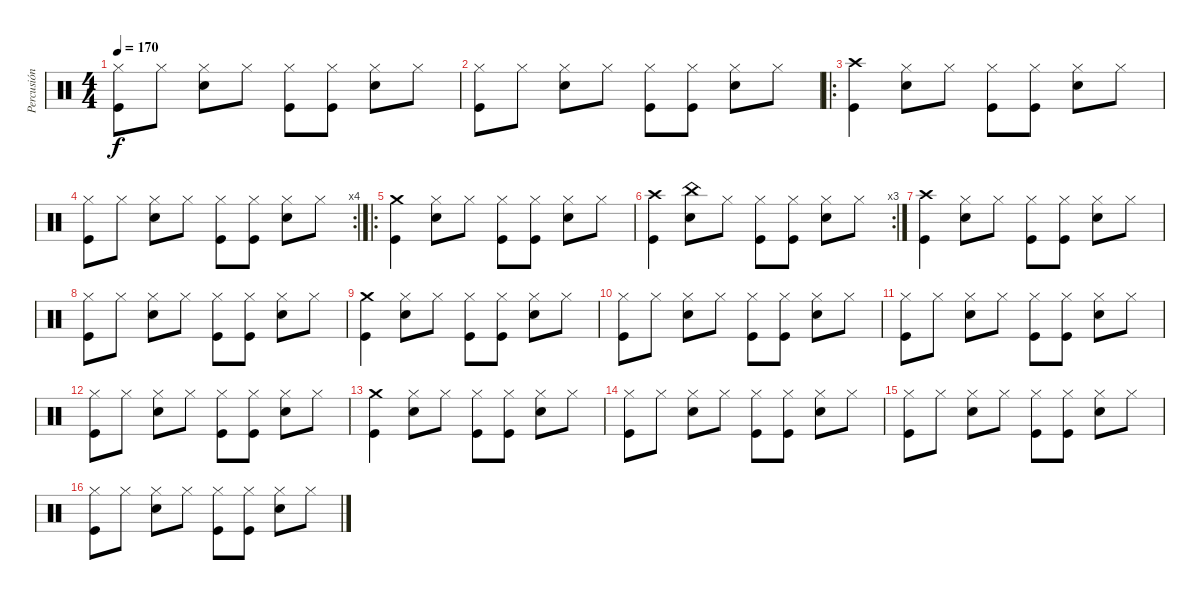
\track ("Percusión" "Percusión") {instrument percussion}
\staff {score}
\articulation defaults
\ts (4 4)
\tempo 170
\clef neutral
\ks c
("Kick (hit)" "Hi-Hat (closed)").8{dy f} "Hi-Hat (closed)".8 ("Snare (hit) 2" "Hi-Hat (closed)").8 "Hi-Hat (closed)".8 ("Hi-Hat (closed)" "Kick (hit)").8 ("Kick (hit)" "Hi-Hat (closed)").8 ("Snare (hit) 2" "Hi-Hat (closed)").8 "Hi-Hat (closed)".8 |
("Kick (hit)" "Hi-Hat (closed)").8 "Hi-Hat (closed)".8 ("Snare (hit) 2" "Hi-Hat (closed)").8 "Hi-Hat (closed)".8 ("Hi-Hat (closed)" "Kick (hit)").8 ("Kick (hit)" "Hi-Hat (closed)").8 ("Snare (hit) 2" "Hi-Hat (closed)").8 "Hi-Hat (closed)".8 |
\ro
("Kick (hit)" "Crash high (hit)").4 ("Snare (hit) 2" "Hi-Hat (closed)").8 "Hi-Hat (closed)".8 ("Hi-Hat (closed)" "Kick (hit)").8 ("Kick (hit)" "Hi-Hat (closed)").8 ("Snare (hit) 2" "Hi-Hat (closed)").8 "Hi-Hat (closed)".8 |
\rc 4
("Kick (hit)" "Hi-Hat (closed)").8 "Hi-Hat (closed)".8 ("Snare (hit) 2" "Hi-Hat (closed)").8 "Hi-Hat (closed)".8 ("Hi-Hat (closed)" "Kick (hit)").8 ("Kick (hit)" "Hi-Hat (closed)").8 ("Snare (hit) 2" "Hi-Hat (closed)").8 "Hi-Hat (closed)".8 |
\ro
("Kick (hit)" "Crash medium (hit)").4 ("Snare (hit) 2" "Hi-Hat (closed)").8 "Hi-Hat (closed)".8 ("Hi-Hat (closed)" "Kick (hit)").8 ("Kick (hit)" "Hi-Hat (closed)").8 ("Snare (hit) 2" "Hi-Hat (closed)").8 "Hi-Hat (closed)".8 |
\rc 3
("Kick (hit)" "Crash high (hit)").4 ("Snare (hit) 2" "China (hit)").8 "Hi-Hat (closed)".8 ("Hi-Hat (closed)" "Kick (hit)").8 ("Kick (hit)" "Hi-Hat (closed)").8 ("Snare (hit) 2" "Hi-Hat (closed)").8 "Hi-Hat (closed)".8 |
("Kick (hit)" "Crash high (hit)").4 ("Snare (hit) 2" "Hi-Hat (closed)").8 "Hi-Hat (closed)".8 ("Hi-Hat (closed)" "Kick (hit)").8 ("Kick (hit)" "Hi-Hat (closed)").8 ("Snare (hit) 2" "Hi-Hat (closed)").8 "Hi-Hat (closed)".8 |
("Kick (hit)" "Hi-Hat (closed)").8 "Hi-Hat (closed)".8 ("Snare (hit) 2" "Hi-Hat (closed)").8 "Hi-Hat (closed)".8 ("Hi-Hat (closed)" "Kick (hit)").8 ("Kick (hit)" "Hi-Hat (closed)").8 ("Snare (hit) 2" "Hi-Hat (closed)").8 "Hi-Hat (closed)".8 |
("Kick (hit)" "Crash medium (hit)").4 ("Snare (hit) 2" "Hi-Hat (closed)").8 "Hi-Hat (closed)".8 ("Hi-Hat (closed)" "Kick (hit)").8 ("Kick (hit)" "Hi-Hat (closed)").8 ("Snare (hit) 2" "Hi-Hat (closed)").8 "Hi-Hat (closed)".8 |
("Kick (hit)" "Hi-Hat (closed)").8 "Hi-Hat (closed)".8 ("Snare (hit) 2" "Hi-Hat (closed)").8 "Hi-Hat (closed)".8 ("Hi-Hat (closed)" "Kick (hit)").8 ("Kick (hit)" "Hi-Hat (closed)").8 ("Snare (hit) 2" "Hi-Hat (closed)").8 "Hi-Hat (closed)".8 |
("Kick (hit)" "Hi-Hat (closed)").8 "Hi-Hat (closed)".8 ("Snare (hit) 2" "Hi-Hat (closed)").8 "Hi-Hat (closed)".8 ("Hi-Hat (closed)" "Kick (hit)").8 ("Kick (hit)" "Hi-Hat (closed)").8 ("Snare (hit) 2" "Hi-Hat (closed)").8 "Hi-Hat (closed)".8 |
("Kick (hit)" "Hi-Hat (closed)").8 "Hi-Hat (closed)".8 ("Snare (hit) 2" "Hi-Hat (closed)").8 "Hi-Hat (closed)".8 ("Hi-Hat (closed)" "Kick (hit)").8 ("Kick (hit)" "Hi-Hat (closed)").8 ("Snare (hit) 2" "Hi-Hat (closed)").8 "Hi-Hat (closed)".8 |
("Kick (hit)" "Crash medium (hit)").4 ("Snare (hit) 2" "Hi-Hat (closed)").8 "Hi-Hat (closed)".8 ("Hi-Hat (closed)" "Kick (hit)").8 ("Kick (hit)" "Hi-Hat (closed)").8 ("Snare (hit) 2" "Hi-Hat (closed)").8 "Hi-Hat (closed)".8 |
("Kick (hit)" "Hi-Hat (closed)").8 "Hi-Hat (closed)".8 ("Snare (hit) 2" "Hi-Hat (closed)").8 "Hi-Hat (closed)".8 ("Hi-Hat (closed)" "Kick (hit)").8 ("Kick (hit)" "Hi-Hat (closed)").8 ("Snare (hit) 2" "Hi-Hat (closed)").8 "Hi-Hat (closed)".8 |
("Kick (hit)" "Hi-Hat (closed)").8 "Hi-Hat (closed)".8 ("Snare (hit) 2" "Hi-Hat (closed)").8 "Hi-Hat (closed)".8 ("Hi-Hat (closed)" "Kick (hit)").8 ("Kick (hit)" "Hi-Hat (closed)").8 ("Snare (hit) 2" "Hi-Hat (closed)").8 "Hi-Hat (closed)".8 |
("Kick (hit)" "Hi-Hat (closed)").8 "Hi-Hat (closed)".8 ("Snare (hit) 2" "Hi-Hat (closed)").8 "Hi-Hat (closed)".8 ("Hi-Hat (closed)" "Kick (hit)").8 ("Kick (hit)" "Hi-Hat (closed)").8 ("Snare (hit) 2" "Hi-Hat (closed)").8 "Hi-Hat (closed)".8
